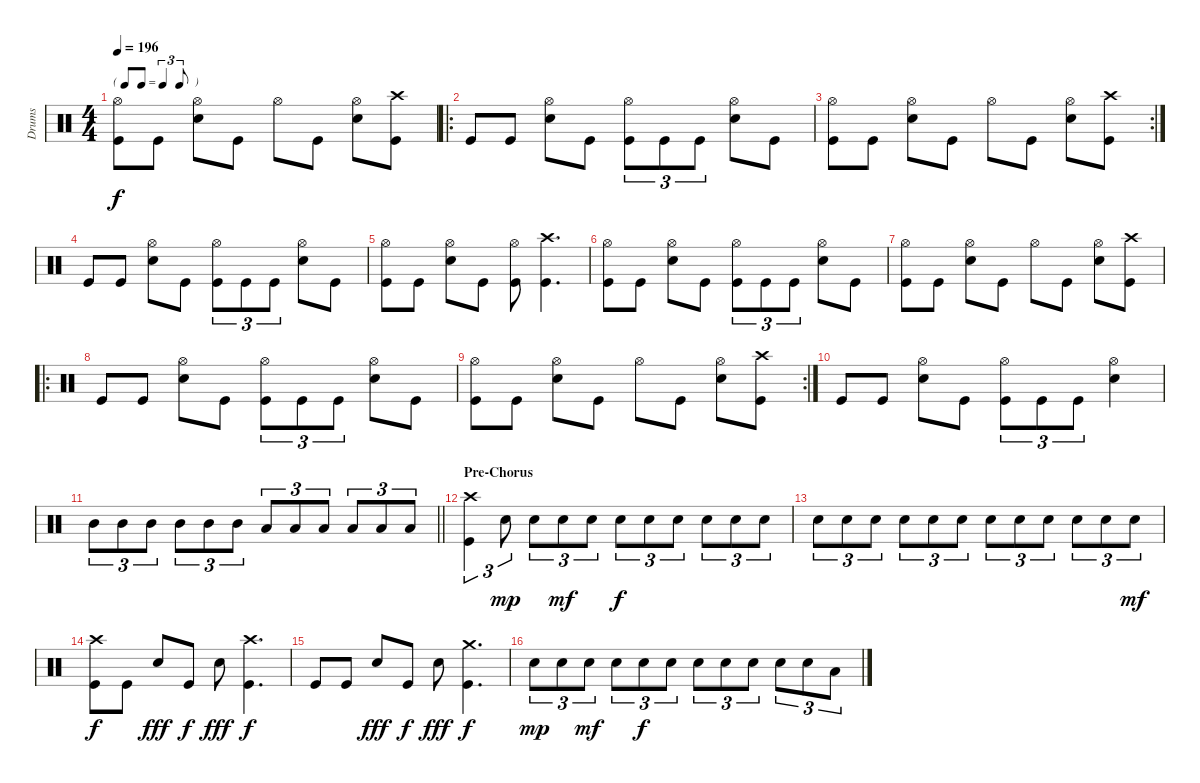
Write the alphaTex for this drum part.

\track ("Drums" "Drums") {instrument percussion}
\staff {score}
\articulation defaults
\ts (4 4)
\tf triplet8th
\tempo 196
\clef neutral
\ks c
("Hi-Hat (open)" "Kick (hit)").8{dy f} "Kick (hit)".8 ("Hi-Hat (open)" "Snare (hit) 2").8 "Kick (hit)".8 "Hi-Hat (open)".8 "Kick (hit)".8 ("Hi-Hat (open)" "Snare (hit) 2").8 ("Crash high (hit)" "Kick (hit)").8 |
\ro "Kick (hit)".8 "Kick (hit)".8
("Hi-Hat (open)" "Snare (hit) 2").8 "Kick (hit)".8 ("Hi-Hat (open)" "Kick (hit)").8{tu (3 2)} "Kick (hit)".8{tu (3 2)} "Kick (hit)".8{tu (3 2)} ("Hi-Hat (open)" "Snare (hit) 2").8 "Kick (hit)".8 |
\rc 2
("Hi-Hat (open)" "Kick (hit)").8 "Kick (hit)".8 ("Hi-Hat (open)" "Snare (hit) 2").8 "Kick (hit)".8 "Hi-Hat (open)".8 "Kick (hit)".8 ("Hi-Hat (open)" "Snare (hit) 2").8 ("Crash high (hit)" "Kick (hit)").8 |
"Kick (hit)".8 "Kick (hit)".8 ("Hi-Hat (open)" "Snare (hit) 2").8 "Kick (hit)".8 ("Hi-Hat (open)" "Kick (hit)").8{tu (3 2)} "Kick (hit)".8{tu (3 2)} "Kick (hit)".8{tu (3 2)} ("Hi-Hat (open)" "Snare (hit) 2").8 "Kick (hit)".8 |
("Hi-Hat (open)" "Kick (hit)").8 "Kick (hit)".8 ("Hi-Hat (open)" "Snare (hit) 2").8 "Kick (hit)".8 ("Hi-Hat (open)" "Kick (hit)").8 ("Crash high (hit)" "Kick (hit)").4{d} |
("Hi-Hat (open)" "Kick (hit)").8 "Kick (hit)".8 ("Hi-Hat (open)" "Snare (hit) 2").8 "Kick (hit)".8 ("Hi-Hat (open)" "Kick (hit)").8{tu (3 2)} "Kick (hit)".8{tu (3 2)} "Kick (hit)".8{tu (3 2)} ("Hi-Hat (open)" "Snare (hit) 2").8 "Kick (hit)".8 |
("Hi-Hat (open)" "Kick (hit)").8 "Kick (hit)".8 ("Hi-Hat (open)" "Snare (hit) 2").8 "Kick (hit)".8 "Hi-Hat (open)".8 "Kick (hit)".8 ("Hi-Hat (open)" "Snare (hit) 2").8 ("Crash high (hit)" "Kick (hit)").8 |
\ro "Kick (hit)".8 "Kick (hit)".8
("Hi-Hat (open)" "Snare (hit) 2").8 "Kick (hit)".8 ("Hi-Hat (open)" "Kick (hit)").8{tu (3 2)} "Kick (hit)".8{tu (3 2)} "Kick (hit)".8{tu (3 2)} ("Hi-Hat (open)" "Snare (hit) 2").8 "Kick (hit)".8 |
\rc 2
("Hi-Hat (open)" "Kick (hit)").8 "Kick (hit)".8 ("Hi-Hat (open)" "Snare (hit) 2").8 "Kick (hit)".8 "Hi-Hat (open)".8 "Kick (hit)".8 ("Hi-Hat (open)" "Snare (hit) 2").8 ("Crash high (hit)" "Kick (hit)").8 |
"Kick (hit)".8 "Kick (hit)".8 ("Hi-Hat (open)" "Snare (hit) 2").8 "Kick (hit)".8 ("Hi-Hat (open)" "Kick (hit)").8{tu (3 2)} "Kick (hit)".8{tu (3 2)} "Kick (hit)".8{tu (3 2)} ("Hi-Hat (open)" "Snare (hit) 2").4 |
\barLineRight lightlight "Mid Tom (hit)".8{tu (3 2)} "Mid Tom (hit)".8{tu (3 2)} "Mid Tom (hit)".8{tu (3 2)} "Mid Tom (hit)".8{tu (3 2)} "Mid Tom (hit)".8{tu (3 2)} "Mid Tom (hit)".8{tu (3 2)} "Low Tom (hit)".8{tu (3 2)} "Low Tom (hit)".8{tu (3 2)} "Low Tom (hit)".8{tu (3 2)} "Low Tom (hit)".8{tu (3 2)} "Low Tom (hit)".8{tu (3 2)} "Low Tom (hit)".8{tu (3 2)}
|
\section ("" "Pre-Chorus")
("Crash high (hit)" "Kick (hit)").4{tu (3 2)} "Snare (hit) 2".8{tu (3 2) dy mp} "Snare (hit) 2".8{tu (3 2)} "Snare (hit) 2".8{tu (3 2) dy mf} "Snare (hit) 2".8{tu (3 2)} "Snare (hit) 2".8{tu (3 2) dy f} "Snare (hit) 2".8{tu (3 2)} "Snare (hit) 2".8{tu (3 2)} "Snare (hit) 2".8{tu (3 2)} "Snare (hit) 2".8{tu (3 2)} "Snare (hit) 2".8{tu (3 2)} |
"Snare (hit) 2".8{tu (3 2)} "Snare (hit) 2".8{tu (3 2)} "Snare (hit) 2".8{tu (3 2)} "Snare (hit) 2".8{tu (3 2)} "Snare (hit) 2".8{tu (3 2)} "Snare (hit) 2".8{tu (3 2)} "Snare (hit) 2".8{tu (3 2)} "Snare (hit) 2".8{tu (3 2)} "Snare (hit) 2".8{tu (3 2)} "Snare (hit) 2".8{tu (3 2)} "Snare (hit) 2".8{tu (3 2)} "Snare (hit) 2".8{tu (3 2) dy mf} |
("Crash high (hit)" "Kick (hit)").8{dy f} "Kick (hit)".8 "Snare (hit) 2".8{dy fff} "Kick (hit)".8{dy f} "Snare (hit) 2".8{dy fff} ("Crash high (hit)" "Kick (hit)").4{d dy f} |
"Kick (hit)".8 "Kick (hit)".8 "Snare (hit) 2".8{dy fff} "Kick (hit)".8{dy f} "Snare (hit) 2".8{dy fff} ("Crash medium (hit)" "Kick (hit)").4{d dy f} |
"Snare (hit) 2".8{tu (3 2) dy mp} "Snare (hit) 2".8{tu (3 2)} "Snare (hit) 2".8{tu (3 2) dy mf} "Snare (hit) 2".8{tu (3 2)} "Snare (hit) 2".8{tu (3 2) dy f} "Snare (hit) 2".8{tu (3 2)} "Snare (hit) 2".8{tu (3 2)} "Snare (hit) 2".8{tu (3 2)} "Snare (hit) 2".8{tu (3 2)} "Snare (hit) 2".8{tu (3 2)} "Snare (hit) 2".8{tu (3 2)} "Low Tom (hit)".8{tu (3 2)}
